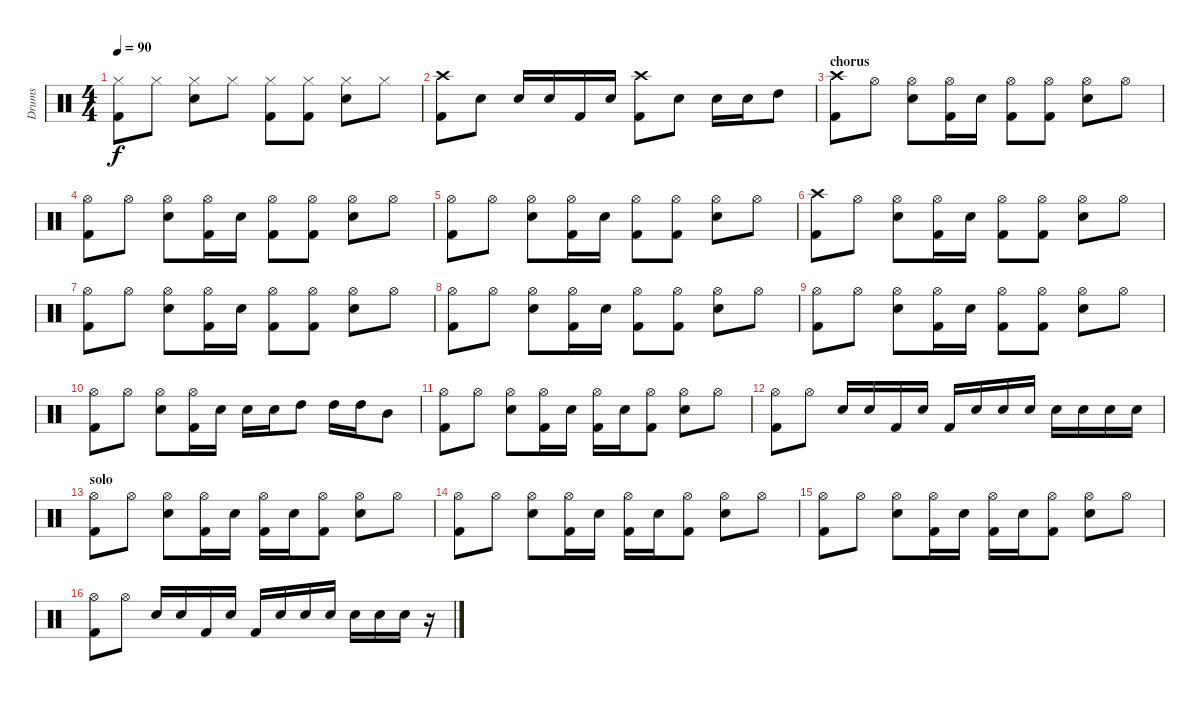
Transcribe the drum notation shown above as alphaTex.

\track ("Drums" "Drums") {instrument percussion}
\staff {score}
\articulation defaults
\ts (4 4)
\tempo 90
\clef neutral
\ks c
("Hi-Hat (closed)" "Kick (hit) 2").8{dy f} "Hi-Hat (closed)".8 ("Hi-Hat (closed)" "Snare (hit) 2").8 "Hi-Hat (closed)".8 ("Hi-Hat (closed)" "Kick (hit) 2").8 ("Hi-Hat (closed)" "Kick (hit) 2").8 ("Hi-Hat (closed)" "Snare (hit) 2").8 "Hi-Hat (closed)".8 |
("Crash high (hit)" "Kick (hit) 2").8 "Snare (hit) 2".8 "Snare (hit) 2".16 "Snare (hit) 2".16 "Kick (hit) 2".16 "Snare (hit) 2".16 ("Crash high (hit)" "Kick (hit) 2").8 "Snare (hit) 2".8 "Snare (hit) 2".16 "Snare (hit) 2".16 "High Tom (hit)".8 |
\section ("" "chorus")
("Crash high (hit)" "Kick (hit) 2").8 "Hi-Hat (open)".8 ("Hi-Hat (open)" "Snare (hit) 2").8 ("Hi-Hat (open)" "Kick (hit) 2").16 "Snare (hit) 2".16 ("Hi-Hat (open)" "Kick (hit) 2").8 ("Hi-Hat (open)" "Kick (hit) 2").8 ("Hi-Hat (open)" "Snare (hit) 2").8 "Hi-Hat (open)".8 |
("Hi-Hat (open)" "Kick (hit) 2").8 "Hi-Hat (open)".8 ("Hi-Hat (open)" "Snare (hit) 2").8 ("Hi-Hat (open)" "Kick (hit) 2").16 "Snare (hit) 2".16 ("Hi-Hat (open)" "Kick (hit) 2").8 ("Hi-Hat (open)" "Kick (hit) 2").8 ("Hi-Hat (open)" "Snare (hit) 2").8 "Hi-Hat (open)".8 |
("Hi-Hat (open)" "Kick (hit) 2").8 "Hi-Hat (open)".8 ("Hi-Hat (open)" "Snare (hit) 2").8 ("Hi-Hat (open)" "Kick (hit) 2").16 "Snare (hit) 2".16 ("Hi-Hat (open)" "Kick (hit) 2").8 ("Hi-Hat (open)" "Kick (hit) 2").8 ("Hi-Hat (open)" "Snare (hit) 2").8 "Hi-Hat (open)".8 |
("Crash high (hit)" "Kick (hit) 2").8 "Hi-Hat (open)".8 ("Hi-Hat (open)" "Snare (hit) 2").8 ("Hi-Hat (open)" "Kick (hit) 2").16 "Snare (hit) 2".16 ("Hi-Hat (open)" "Kick (hit) 2").8 ("Hi-Hat (open)" "Kick (hit) 2").8 ("Hi-Hat (open)" "Snare (hit) 2").8 "Hi-Hat (open)".8 |
("Hi-Hat (open)" "Kick (hit) 2").8 "Hi-Hat (open)".8 ("Hi-Hat (open)" "Snare (hit) 2").8 ("Hi-Hat (open)" "Kick (hit) 2").16 "Snare (hit) 2".16 ("Hi-Hat (open)" "Kick (hit) 2").8 ("Hi-Hat (open)" "Kick (hit) 2").8 ("Hi-Hat (open)" "Snare (hit) 2").8 "Hi-Hat (open)".8 |
("Hi-Hat (open)" "Kick (hit) 2").8 "Hi-Hat (open)".8 ("Hi-Hat (open)" "Snare (hit) 2").8 ("Hi-Hat (open)" "Kick (hit) 2").16 "Snare (hit) 2".16 ("Hi-Hat (open)" "Kick (hit) 2").8 ("Hi-Hat (open)" "Kick (hit) 2").8 ("Hi-Hat (open)" "Snare (hit) 2").8 "Hi-Hat (open)".8 |
("Hi-Hat (open)" "Kick (hit) 2").8 "Hi-Hat (open)".8 ("Hi-Hat (open)" "Snare (hit) 2").8 ("Hi-Hat (open)" "Kick (hit) 2").16 "Snare (hit) 2".16 ("Hi-Hat (open)" "Kick (hit) 2").8 ("Hi-Hat (open)" "Kick (hit) 2").8 ("Hi-Hat (open)" "Snare (hit) 2").8 "Hi-Hat (open)".8 |
("Hi-Hat (open)" "Kick (hit) 2").8 "Hi-Hat (open)".8 ("Hi-Hat (open)" "Snare (hit) 2").8 ("Hi-Hat (open)" "Kick (hit) 2").16 "Snare (hit) 2".16 "Snare (hit) 2".16 "Snare (hit) 2".16 "High Tom (hit)".8 "High Tom (hit)".16 "High Tom (hit)".16 "Mid Tom (hit)".8 |
("Hi-Hat (open)" "Kick (hit) 2").8 "Hi-Hat (open)".8 ("Hi-Hat (open)" "Snare (hit) 2").8 ("Hi-Hat (open)" "Kick (hit) 2").16 "Snare (hit) 2".16 ("Hi-Hat (open)" "Kick (hit) 2").16 "Snare (hit) 2".16 ("Hi-Hat (open)" "Kick (hit) 2").8 ("Hi-Hat (open)" "Snare (hit) 2").8 "Hi-Hat (open)".8 |
("Hi-Hat (open)" "Kick (hit) 2").8 "Hi-Hat (open)".8 "Snare (hit) 2".16 "Snare (hit) 2".16 "Kick (hit) 2".16 "Snare (hit) 2".16 "Kick (hit) 2".16 "Snare (hit) 2".16 "Snare (hit) 2".16 "Snare (hit) 2".16 "Snare (hit) 2".16 "Snare (hit) 2".16 "Snare (hit) 2".16 "Snare (hit) 2".16 |
\section ("" "solo")
("Hi-Hat (open)" "Kick (hit) 2").8 "Hi-Hat (open)".8 ("Hi-Hat (open)" "Snare (hit) 2").8 ("Hi-Hat (open)" "Kick (hit) 2").16 "Snare (hit) 2".16 ("Hi-Hat (open)" "Kick (hit) 2").16 "Snare (hit) 2".16 ("Hi-Hat (open)" "Kick (hit) 2").8 ("Hi-Hat (open)" "Snare (hit) 2").8 "Hi-Hat (open)".8 |
("Hi-Hat (open)" "Kick (hit) 2").8 "Hi-Hat (open)".8 ("Hi-Hat (open)" "Snare (hit) 2").8 ("Hi-Hat (open)" "Kick (hit) 2").16 "Snare (hit) 2".16 ("Hi-Hat (open)" "Kick (hit) 2").16 "Snare (hit) 2".16 ("Hi-Hat (open)" "Kick (hit) 2").8 ("Hi-Hat (open)" "Snare (hit) 2").8 "Hi-Hat (open)".8 |
("Hi-Hat (open)" "Kick (hit) 2").8 "Hi-Hat (open)".8 ("Hi-Hat (open)" "Snare (hit) 2").8 ("Hi-Hat (open)" "Kick (hit) 2").16 "Snare (hit) 2".16 ("Hi-Hat (open)" "Kick (hit) 2").16 "Snare (hit) 2".16 ("Hi-Hat (open)" "Kick (hit) 2").8 ("Hi-Hat (open)" "Snare (hit) 2").8 "Hi-Hat (open)".8 |
("Hi-Hat (open)" "Kick (hit) 2").8 "Hi-Hat (open)".8 "Snare (hit) 2".16 "Snare (hit) 2".16 "Kick (hit) 2".16 "Snare (hit) 2".16 "Kick (hit) 2".16 "Snare (hit) 2".16 "Snare (hit) 2".16 "Snare (hit) 2".16 "Snare (hit) 2".16 "Snare (hit) 2".16 "Snare (hit) 2".16 r.16
